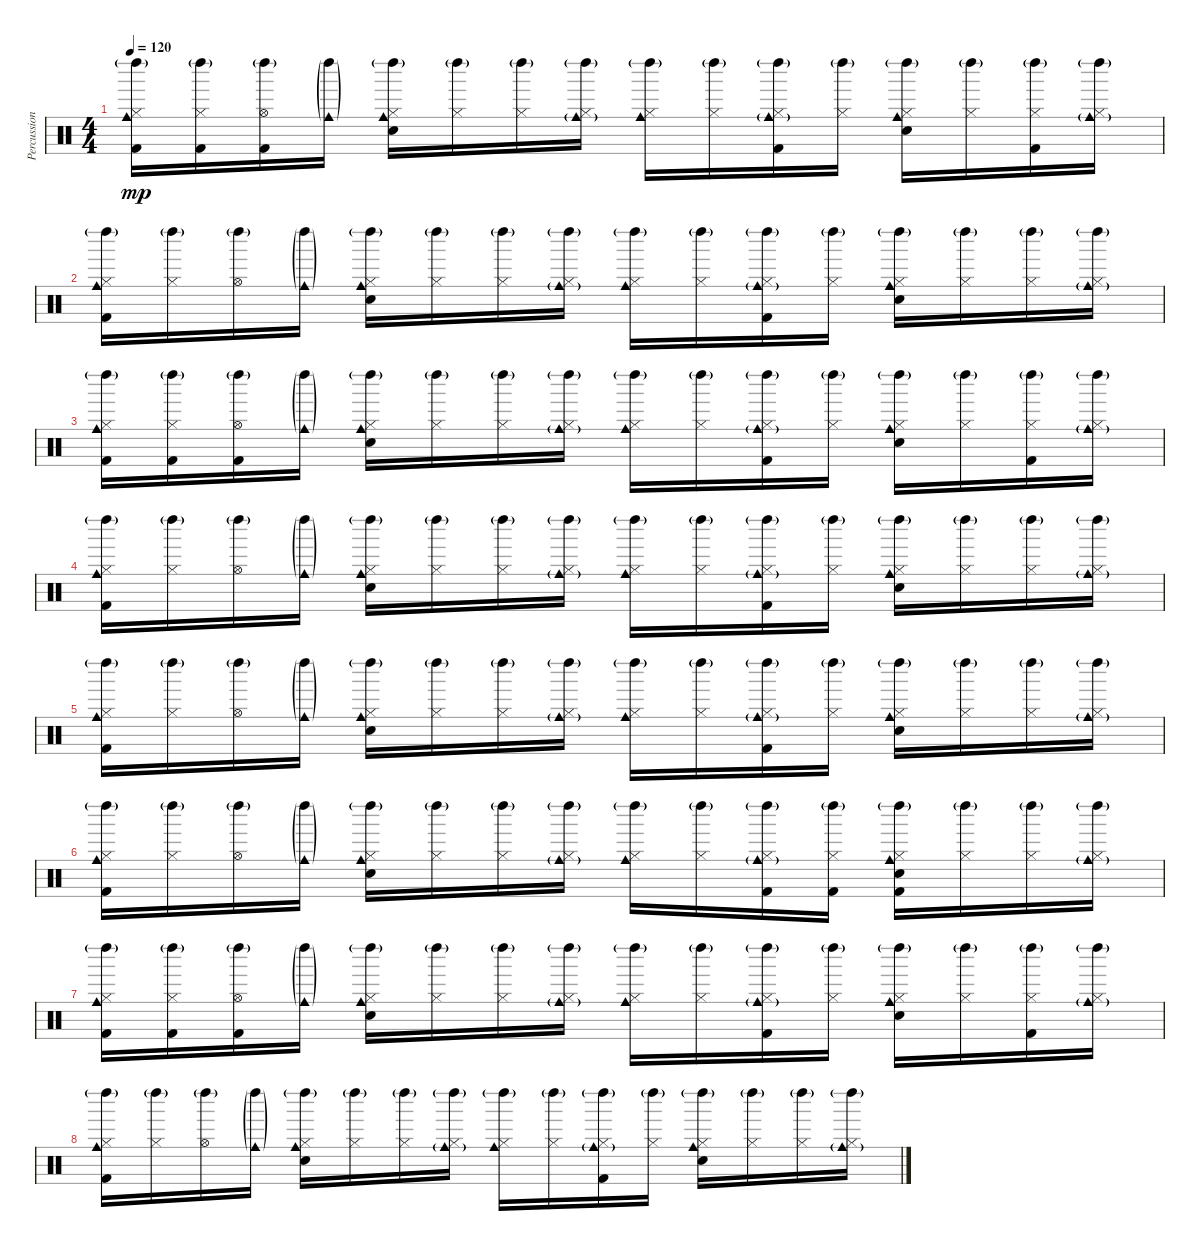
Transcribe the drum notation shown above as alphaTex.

\track ("Percussion" "Percussion") {instrument percussion}
\staff {score}
\articulation defaults
\ts (4 4)
\tempo 120
\clef neutral
\ks c
("Kick (hit) 2" "Hi-Hat (closed)" "Cowbell medium (hit)" "Left Maraca (hit)"{g}).16{dy mp} ("Kick (hit) 2" "Hi-Hat (closed)" "Left Maraca (hit)"{g}).16 ("Kick (hit) 2" "Hi-Hat (open)" "Left Maraca (hit)"{g}).16 ("Cowbell medium (hit)"{g} "Left Maraca (hit)"{g}).16 ("Electric Snare (hit)" "Hi-Hat (closed)" "Cowbell medium (hit)" "Left Maraca (hit)"{g}).16 ("Hi-Hat (closed)" "Left Maraca (hit)"{g}).16 ("Hi-Hat (closed)" "Left Maraca (hit)"{g}).16 ("Hi-Hat (closed)" "Cowbell medium (hit)"{g} "Left Maraca (hit)"{g}).16 ("Hi-Hat (closed)" "Cowbell medium (hit)" "Left Maraca (hit)"{g}).16 ("Hi-Hat (closed)" "Left Maraca (hit)"{g}).16 ("Kick (hit) 2" "Hi-Hat (closed)" "Cowbell medium (hit)"{g} "Left Maraca (hit)"{g}).16 ("Hi-Hat (closed)" "Left Maraca (hit)"{g}).16 ("Electric Snare (hit)" "Hi-Hat (closed)" "Cowbell medium (hit)" "Left Maraca (hit)"{g}).16 ("Hi-Hat (closed)" "Left Maraca (hit)"{g}).16 ("Kick (hit) 2" "Hi-Hat (closed)" "Left Maraca (hit)"{g}).16 ("Hi-Hat (closed)" "Cowbell medium (hit)"{g} "Left Maraca (hit)"{g}).16 |
("Kick (hit) 2" "Hi-Hat (closed)" "Cowbell medium (hit)" "Left Maraca (hit)"{g}).16 ("Hi-Hat (closed)" "Left Maraca (hit)"{g}).16 ("Hi-Hat (open)" "Left Maraca (hit)"{g}).16 ("Cowbell medium (hit)"{g} "Left Maraca (hit)"{g}).16 ("Electric Snare (hit)" "Hi-Hat (closed)" "Cowbell medium (hit)" "Left Maraca (hit)"{g}).16 ("Hi-Hat (closed)" "Left Maraca (hit)"{g}).16 ("Hi-Hat (closed)" "Left Maraca (hit)"{g}).16 ("Hi-Hat (closed)" "Cowbell medium (hit)"{g} "Left Maraca (hit)"{g}).16 ("Hi-Hat (closed)" "Cowbell medium (hit)" "Left Maraca (hit)"{g}).16 ("Hi-Hat (closed)" "Left Maraca (hit)"{g}).16 ("Kick (hit) 2" "Hi-Hat (closed)" "Cowbell medium (hit)"{g} "Left Maraca (hit)"{g}).16 ("Hi-Hat (closed)" "Left Maraca (hit)"{g}).16 ("Electric Snare (hit)" "Hi-Hat (closed)" "Cowbell medium (hit)" "Left Maraca (hit)"{g}).16 ("Hi-Hat (closed)" "Left Maraca (hit)"{g}).16 ("Hi-Hat (closed)" "Left Maraca (hit)"{g}).16 ("Hi-Hat (closed)" "Cowbell medium (hit)"{g} "Left Maraca (hit)"{g}).16 |
("Kick (hit) 2" "Hi-Hat (closed)" "Cowbell medium (hit)" "Left Maraca (hit)"{g}).16 ("Kick (hit) 2" "Hi-Hat (closed)" "Left Maraca (hit)"{g}).16 ("Kick (hit) 2" "Hi-Hat (open)" "Left Maraca (hit)"{g}).16 ("Cowbell medium (hit)"{g} "Left Maraca (hit)"{g}).16 ("Electric Snare (hit)" "Hi-Hat (closed)" "Cowbell medium (hit)" "Left Maraca (hit)"{g}).16 ("Hi-Hat (closed)" "Left Maraca (hit)"{g}).16 ("Hi-Hat (closed)" "Left Maraca (hit)"{g}).16 ("Hi-Hat (closed)" "Cowbell medium (hit)"{g} "Left Maraca (hit)"{g}).16 ("Hi-Hat (closed)" "Cowbell medium (hit)" "Left Maraca (hit)"{g}).16 ("Hi-Hat (closed)" "Left Maraca (hit)"{g}).16 ("Kick (hit) 2" "Hi-Hat (closed)" "Cowbell medium (hit)"{g} "Left Maraca (hit)"{g}).16 ("Hi-Hat (closed)" "Left Maraca (hit)"{g}).16 ("Electric Snare (hit)" "Hi-Hat (closed)" "Cowbell medium (hit)" "Left Maraca (hit)"{g}).16 ("Hi-Hat (closed)" "Left Maraca (hit)"{g}).16 ("Kick (hit) 2" "Hi-Hat (closed)" "Left Maraca (hit)"{g}).16 ("Hi-Hat (closed)" "Cowbell medium (hit)"{g} "Left Maraca (hit)"{g}).16 |
("Kick (hit) 2" "Hi-Hat (closed)" "Cowbell medium (hit)" "Left Maraca (hit)"{g}).16 ("Hi-Hat (closed)" "Left Maraca (hit)"{g}).16 ("Hi-Hat (open)" "Left Maraca (hit)"{g}).16 ("Cowbell medium (hit)"{g} "Left Maraca (hit)"{g}).16 ("Electric Snare (hit)" "Hi-Hat (closed)" "Cowbell medium (hit)" "Left Maraca (hit)"{g}).16 ("Hi-Hat (closed)" "Left Maraca (hit)"{g}).16 ("Hi-Hat (closed)" "Left Maraca (hit)"{g}).16 ("Hi-Hat (closed)" "Cowbell medium (hit)"{g} "Left Maraca (hit)"{g}).16 ("Hi-Hat (closed)" "Cowbell medium (hit)" "Left Maraca (hit)"{g}).16 ("Hi-Hat (closed)" "Left Maraca (hit)"{g}).16 ("Kick (hit) 2" "Hi-Hat (closed)" "Cowbell medium (hit)"{g} "Left Maraca (hit)"{g}).16 ("Hi-Hat (closed)" "Left Maraca (hit)"{g}).16 ("Electric Snare (hit)" "Hi-Hat (closed)" "Cowbell medium (hit)" "Left Maraca (hit)"{g}).16 ("Hi-Hat (closed)" "Left Maraca (hit)"{g}).16 ("Hi-Hat (closed)" "Left Maraca (hit)"{g}).16 ("Hi-Hat (closed)" "Cowbell medium (hit)"{g} "Left Maraca (hit)"{g}).16 |
("Kick (hit) 2" "Hi-Hat (closed)" "Cowbell medium (hit)" "Left Maraca (hit)"{g}).16 ("Hi-Hat (closed)" "Left Maraca (hit)"{g}).16 ("Hi-Hat (open)" "Left Maraca (hit)"{g}).16 ("Cowbell medium (hit)"{g} "Left Maraca (hit)"{g}).16 ("Electric Snare (hit)" "Hi-Hat (closed)" "Cowbell medium (hit)" "Left Maraca (hit)"{g}).16 ("Hi-Hat (closed)" "Left Maraca (hit)"{g}).16 ("Hi-Hat (closed)" "Left Maraca (hit)"{g}).16 ("Hi-Hat (closed)" "Cowbell medium (hit)"{g} "Left Maraca (hit)"{g}).16 ("Hi-Hat (closed)" "Cowbell medium (hit)" "Left Maraca (hit)"{g}).16 ("Hi-Hat (closed)" "Left Maraca (hit)"{g}).16 ("Kick (hit) 2" "Hi-Hat (closed)" "Cowbell medium (hit)"{g} "Left Maraca (hit)"{g}).16 ("Hi-Hat (closed)" "Left Maraca (hit)"{g}).16 ("Electric Snare (hit)" "Hi-Hat (closed)" "Cowbell medium (hit)" "Left Maraca (hit)"{g}).16 ("Hi-Hat (closed)" "Left Maraca (hit)"{g}).16 ("Hi-Hat (closed)" "Left Maraca (hit)"{g}).16 ("Hi-Hat (closed)" "Cowbell medium (hit)"{g} "Left Maraca (hit)"{g}).16 |
("Kick (hit) 2" "Hi-Hat (closed)" "Cowbell medium (hit)" "Left Maraca (hit)"{g}).16 ("Hi-Hat (closed)" "Left Maraca (hit)"{g}).16 ("Hi-Hat (open)" "Left Maraca (hit)"{g}).16 ("Cowbell medium (hit)"{g} "Left Maraca (hit)"{g}).16 ("Electric Snare (hit)" "Hi-Hat (closed)" "Cowbell medium (hit)" "Left Maraca (hit)"{g}).16 ("Hi-Hat (closed)" "Left Maraca (hit)"{g}).16 ("Hi-Hat (closed)" "Left Maraca (hit)"{g}).16 ("Hi-Hat (closed)" "Cowbell medium (hit)"{g} "Left Maraca (hit)"{g}).16 ("Hi-Hat (closed)" "Cowbell medium (hit)" "Left Maraca (hit)"{g}).16 ("Hi-Hat (closed)" "Left Maraca (hit)"{g}).16 ("Kick (hit) 2" "Hi-Hat (closed)" "Cowbell medium (hit)"{g} "Left Maraca (hit)"{g}).16 ("Kick (hit) 2" "Hi-Hat (closed)" "Left Maraca (hit)"{g}).16 ("Kick (hit) 2" "Electric Snare (hit)" "Hi-Hat (closed)" "Cowbell medium (hit)" "Left Maraca (hit)"{g}).16 ("Hi-Hat (closed)" "Left Maraca (hit)"{g}).16 ("Hi-Hat (closed)" "Left Maraca (hit)"{g}).16 ("Hi-Hat (closed)" "Cowbell medium (hit)"{g} "Left Maraca (hit)"{g}).16 |
("Kick (hit) 2" "Hi-Hat (closed)" "Cowbell medium (hit)" "Left Maraca (hit)"{g}).16 ("Kick (hit) 2" "Hi-Hat (closed)" "Left Maraca (hit)"{g}).16 ("Kick (hit) 2" "Hi-Hat (open)" "Left Maraca (hit)"{g}).16 ("Cowbell medium (hit)"{g} "Left Maraca (hit)"{g}).16 ("Electric Snare (hit)" "Hi-Hat (closed)" "Cowbell medium (hit)" "Left Maraca (hit)"{g}).16 ("Hi-Hat (closed)" "Left Maraca (hit)"{g}).16 ("Hi-Hat (closed)" "Left Maraca (hit)"{g}).16 ("Hi-Hat (closed)" "Cowbell medium (hit)"{g} "Left Maraca (hit)"{g}).16 ("Hi-Hat (closed)" "Cowbell medium (hit)" "Left Maraca (hit)"{g}).16 ("Hi-Hat (closed)" "Left Maraca (hit)"{g}).16 ("Kick (hit) 2" "Hi-Hat (closed)" "Cowbell medium (hit)"{g} "Left Maraca (hit)"{g}).16 ("Hi-Hat (closed)" "Left Maraca (hit)"{g}).16 ("Electric Snare (hit)" "Hi-Hat (closed)" "Cowbell medium (hit)" "Left Maraca (hit)"{g}).16 ("Hi-Hat (closed)" "Left Maraca (hit)"{g}).16 ("Kick (hit) 2" "Hi-Hat (closed)" "Left Maraca (hit)"{g}).16 ("Hi-Hat (closed)" "Cowbell medium (hit)"{g} "Left Maraca (hit)"{g}).16 |
("Kick (hit) 2" "Hi-Hat (closed)" "Cowbell medium (hit)" "Left Maraca (hit)"{g}).16 ("Hi-Hat (closed)" "Left Maraca (hit)"{g}).16 ("Hi-Hat (open)" "Left Maraca (hit)"{g}).16 ("Cowbell medium (hit)"{g} "Left Maraca (hit)"{g}).16 ("Electric Snare (hit)" "Hi-Hat (closed)" "Cowbell medium (hit)" "Left Maraca (hit)"{g}).16 ("Hi-Hat (closed)" "Left Maraca (hit)"{g}).16 ("Hi-Hat (closed)" "Left Maraca (hit)"{g}).16 ("Hi-Hat (closed)" "Cowbell medium (hit)"{g} "Left Maraca (hit)"{g}).16 ("Hi-Hat (closed)" "Cowbell medium (hit)" "Left Maraca (hit)"{g}).16 ("Hi-Hat (closed)" "Left Maraca (hit)"{g}).16 ("Kick (hit) 2" "Hi-Hat (closed)" "Cowbell medium (hit)"{g} "Left Maraca (hit)"{g}).16 ("Hi-Hat (closed)" "Left Maraca (hit)"{g}).16 ("Electric Snare (hit)" "Hi-Hat (closed)" "Cowbell medium (hit)" "Left Maraca (hit)"{g}).16 ("Hi-Hat (closed)" "Left Maraca (hit)"{g}).16 ("Hi-Hat (closed)" "Left Maraca (hit)"{g}).16 ("Hi-Hat (closed)" "Cowbell medium (hit)"{g} "Left Maraca (hit)"{g}).16
